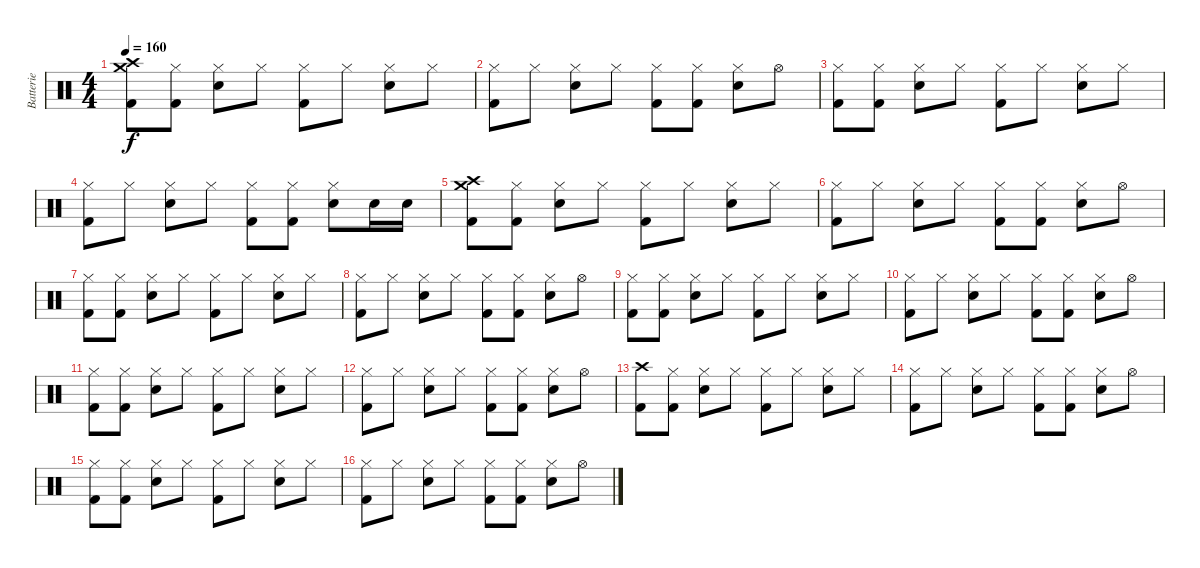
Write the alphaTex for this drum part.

\track ("Batterie" "Batterie") {instrument percussion}
\staff {score}
\articulation defaults
\ts (4 4)
\tempo 160
\clef neutral
\ks c
("Crash high (hit)" "Crash medium (hit)" "Kick (hit) 2").8{dy f} ("Hi-Hat (closed)" "Kick (hit) 2").8 ("Hi-Hat (closed)" "Snare (hit) 2").8 "Hi-Hat (closed)".8 ("Hi-Hat (closed)" "Kick (hit) 2").8 "Hi-Hat (closed)".8 ("Hi-Hat (closed)" "Snare (hit) 2").8 "Hi-Hat (closed)".8 |
("Hi-Hat (closed)" "Kick (hit) 2").8 "Hi-Hat (closed)".8 ("Hi-Hat (closed)" "Snare (hit) 2").8 "Hi-Hat (closed)".8 ("Hi-Hat (closed)" "Kick (hit) 2").8 ("Hi-Hat (closed)" "Kick (hit) 2").8 ("Hi-Hat (closed)" "Snare (hit) 2").8 "Hi-Hat (open)".8 |
("Hi-Hat (closed)" "Kick (hit) 2").8 ("Hi-Hat (closed)" "Kick (hit) 2").8 ("Hi-Hat (closed)" "Snare (hit) 2").8 "Hi-Hat (closed)".8 ("Hi-Hat (closed)" "Kick (hit) 2").8 "Hi-Hat (closed)".8 ("Hi-Hat (closed)" "Snare (hit) 2").8 "Hi-Hat (closed)".8 |
("Hi-Hat (closed)" "Kick (hit) 2").8 "Hi-Hat (closed)".8 ("Hi-Hat (closed)" "Snare (hit) 2").8 "Hi-Hat (closed)".8 ("Hi-Hat (closed)" "Kick (hit) 2").8 ("Hi-Hat (closed)" "Kick (hit) 2").8 ("Hi-Hat (closed)" "Snare (hit) 2").8 "Snare (hit) 2".16 "Snare (hit) 2".16 |
("Crash high (hit)" "Crash medium (hit)" "Kick (hit) 2").8 ("Hi-Hat (closed)" "Kick (hit) 2").8 ("Hi-Hat (closed)" "Snare (hit) 2").8 "Hi-Hat (closed)".8 ("Hi-Hat (closed)" "Kick (hit) 2").8 "Hi-Hat (closed)".8 ("Hi-Hat (closed)" "Snare (hit) 2").8 "Hi-Hat (closed)".8 |
("Hi-Hat (closed)" "Kick (hit) 2").8 "Hi-Hat (closed)".8 ("Hi-Hat (closed)" "Snare (hit) 2").8 "Hi-Hat (closed)".8 ("Hi-Hat (closed)" "Kick (hit) 2").8 ("Hi-Hat (closed)" "Kick (hit) 2").8 ("Hi-Hat (closed)" "Snare (hit) 2").8 "Hi-Hat (open)".8 |
("Hi-Hat (closed)" "Kick (hit) 2").8 ("Hi-Hat (closed)" "Kick (hit) 2").8 ("Hi-Hat (closed)" "Snare (hit) 2").8 "Hi-Hat (closed)".8 ("Hi-Hat (closed)" "Kick (hit) 2").8 "Hi-Hat (closed)".8 ("Hi-Hat (closed)" "Snare (hit) 2").8 "Hi-Hat (closed)".8 |
("Hi-Hat (closed)" "Kick (hit) 2").8 "Hi-Hat (closed)".8 ("Hi-Hat (closed)" "Snare (hit) 2").8 "Hi-Hat (closed)".8 ("Hi-Hat (closed)" "Kick (hit) 2").8 ("Hi-Hat (closed)" "Kick (hit) 2").8 ("Hi-Hat (closed)" "Snare (hit) 2").8 "Hi-Hat (open)".8 |
("Hi-Hat (closed)" "Kick (hit) 2").8 ("Hi-Hat (closed)" "Kick (hit) 2").8 ("Hi-Hat (closed)" "Snare (hit) 2").8 "Hi-Hat (closed)".8 ("Hi-Hat (closed)" "Kick (hit) 2").8 "Hi-Hat (closed)".8 ("Hi-Hat (closed)" "Snare (hit) 2").8 "Hi-Hat (closed)".8 |
("Hi-Hat (closed)" "Kick (hit) 2").8 "Hi-Hat (closed)".8 ("Hi-Hat (closed)" "Snare (hit) 2").8 "Hi-Hat (closed)".8 ("Hi-Hat (closed)" "Kick (hit) 2").8 ("Hi-Hat (closed)" "Kick (hit) 2").8 ("Hi-Hat (closed)" "Snare (hit) 2").8 "Hi-Hat (open)".8 |
("Hi-Hat (closed)" "Kick (hit) 2").8 ("Hi-Hat (closed)" "Kick (hit) 2").8 ("Hi-Hat (closed)" "Snare (hit) 2").8 "Hi-Hat (closed)".8 ("Hi-Hat (closed)" "Kick (hit) 2").8 "Hi-Hat (closed)".8 ("Hi-Hat (closed)" "Snare (hit) 2").8 "Hi-Hat (closed)".8 |
("Hi-Hat (closed)" "Kick (hit) 2").8 "Hi-Hat (closed)".8 ("Hi-Hat (closed)" "Snare (hit) 2").8 "Hi-Hat (closed)".8 ("Hi-Hat (closed)" "Kick (hit) 2").8 ("Hi-Hat (closed)" "Kick (hit) 2").8 ("Hi-Hat (closed)" "Snare (hit) 2").8 "Hi-Hat (open)".8 |
("Crash high (hit)" "Kick (hit) 2").8 ("Hi-Hat (closed)" "Kick (hit) 2").8 ("Hi-Hat (closed)" "Snare (hit) 2").8 "Hi-Hat (closed)".8 ("Hi-Hat (closed)" "Kick (hit) 2").8 "Hi-Hat (closed)".8 ("Hi-Hat (closed)" "Snare (hit) 2").8 "Hi-Hat (closed)".8 |
("Hi-Hat (closed)" "Kick (hit) 2").8 "Hi-Hat (closed)".8 ("Hi-Hat (closed)" "Snare (hit) 2").8 "Hi-Hat (closed)".8 ("Hi-Hat (closed)" "Kick (hit) 2").8 ("Hi-Hat (closed)" "Kick (hit) 2").8 ("Hi-Hat (closed)" "Snare (hit) 2").8 "Hi-Hat (open)".8 |
("Hi-Hat (closed)" "Kick (hit) 2").8 ("Hi-Hat (closed)" "Kick (hit) 2").8 ("Hi-Hat (closed)" "Snare (hit) 2").8 "Hi-Hat (closed)".8 ("Hi-Hat (closed)" "Kick (hit) 2").8 "Hi-Hat (closed)".8 ("Hi-Hat (closed)" "Snare (hit) 2").8 "Hi-Hat (closed)".8 |
("Hi-Hat (closed)" "Kick (hit) 2").8 "Hi-Hat (closed)".8 ("Hi-Hat (closed)" "Snare (hit) 2").8 "Hi-Hat (closed)".8 ("Hi-Hat (closed)" "Kick (hit) 2").8 ("Hi-Hat (closed)" "Kick (hit) 2").8 ("Hi-Hat (closed)" "Snare (hit) 2").8 "Hi-Hat (open)".8
